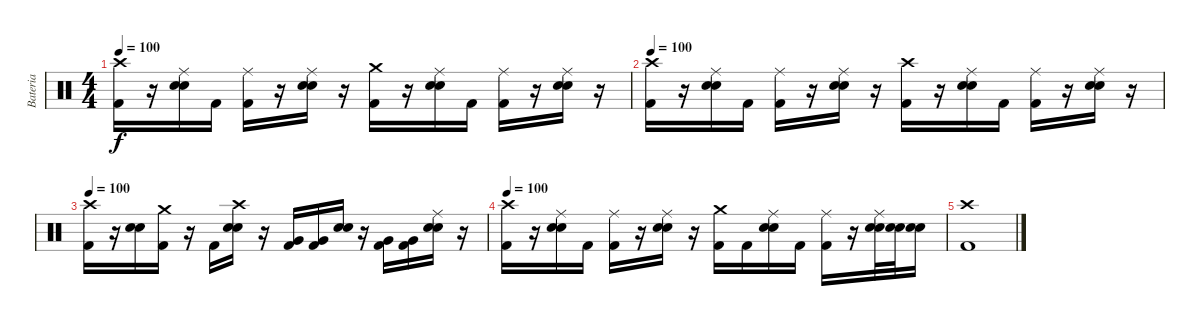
\track ("Bateria" "Bateria") {instrument percussion}
\staff {score}
\articulation defaults
\ts (4 4)
\tempo 100
\clef neutral
\ks c
("Crash high (hit)" "Kick (hit) 2").16{dy f} r.16 ("Ride (middle)" "Snare (hit) 2" "Electric Snare (hit)").16 "Kick (hit) 2".16 ("Ride (middle)" "Kick (hit) 2").16 r.16 ("Ride (middle)" "Snare (hit) 2" "Electric Snare (hit)").16 r.16 ("Crash medium (hit)" "Kick (hit) 2").16 r.16 ("Ride (middle)" "Snare (hit) 2" "Electric Snare (hit)").16 "Kick (hit) 2".16 ("Ride (middle)" "Kick (hit) 2").16 r.16 ("Ride (middle)" "Snare (hit) 2" "Electric Snare (hit)").16 r.16 |
\tempo 100
("Crash high (hit)" "Kick (hit) 2").16 r.16 ("Ride (middle)" "Snare (hit) 2" "Electric Snare (hit)").16 "Kick (hit) 2".16 ("Ride (middle)" "Kick (hit) 2").16 r.16 ("Ride (middle)" "Snare (hit) 2" "Electric Snare (hit)").16 r.16 ("Crash high (hit)" "Kick (hit) 2").16 r.16 ("Ride (middle)" "Snare (hit) 2" "Electric Snare (hit)").16 "Kick (hit) 2".16 ("Ride (middle)" "Kick (hit) 2").16 r.16 ("Ride (middle)" "Snare (hit) 2" "Electric Snare (hit)").16 r.16 |
\tempo 100
("Crash high (hit)" "Kick (hit) 2").16 r.16 ("Snare (hit) 2" "Electric Snare (hit)").16 ("Crash medium (hit)" "Kick (hit) 2").16 r.16 "Kick (hit) 2".16 ("Crash high (hit)" "Snare (hit) 2" "Electric Snare (hit)").16 r.16 ("Very Low Tom (hit)" "Kick (hit) 2").16 ("Very Low Tom (hit)" "Kick (hit) 2").16 ("Snare (hit) 2" "Electric Snare (hit)").16 r.16 ("Very Low Tom (hit)" "Kick (hit) 2").16 ("Very Low Tom (hit)" "Kick (hit) 2").16 ("Ride (middle)" "Snare (hit) 2" "Electric Snare (hit)").16 r.16 |
\tempo 100
("Crash high (hit)" "Kick (hit) 2").16 r.16 ("Ride (middle)" "Snare (hit) 2" "Electric Snare (hit)").16 "Kick (hit) 2".16 ("Ride (middle)" "Kick (hit) 2").16 r.16 ("Ride (middle)" "Snare (hit) 2" "Electric Snare (hit)").16 r.16 ("Crash medium (hit)" "Kick (hit) 2").16 "Kick (hit) 2".16 ("Ride (middle)" "Snare (hit) 2" "Electric Snare (hit)").16 "Kick (hit) 2".16 ("Ride (middle)" "Kick (hit) 2").16 r.16 ("Ride (middle)" "Snare (hit) 2" "Electric Snare (hit)").32 ("Snare (hit) 2" "Electric Snare (hit)").32 ("Snare (hit) 2" "Electric Snare (hit)").16 |
("Crash high (hit)" "Kick (hit) 2").1
